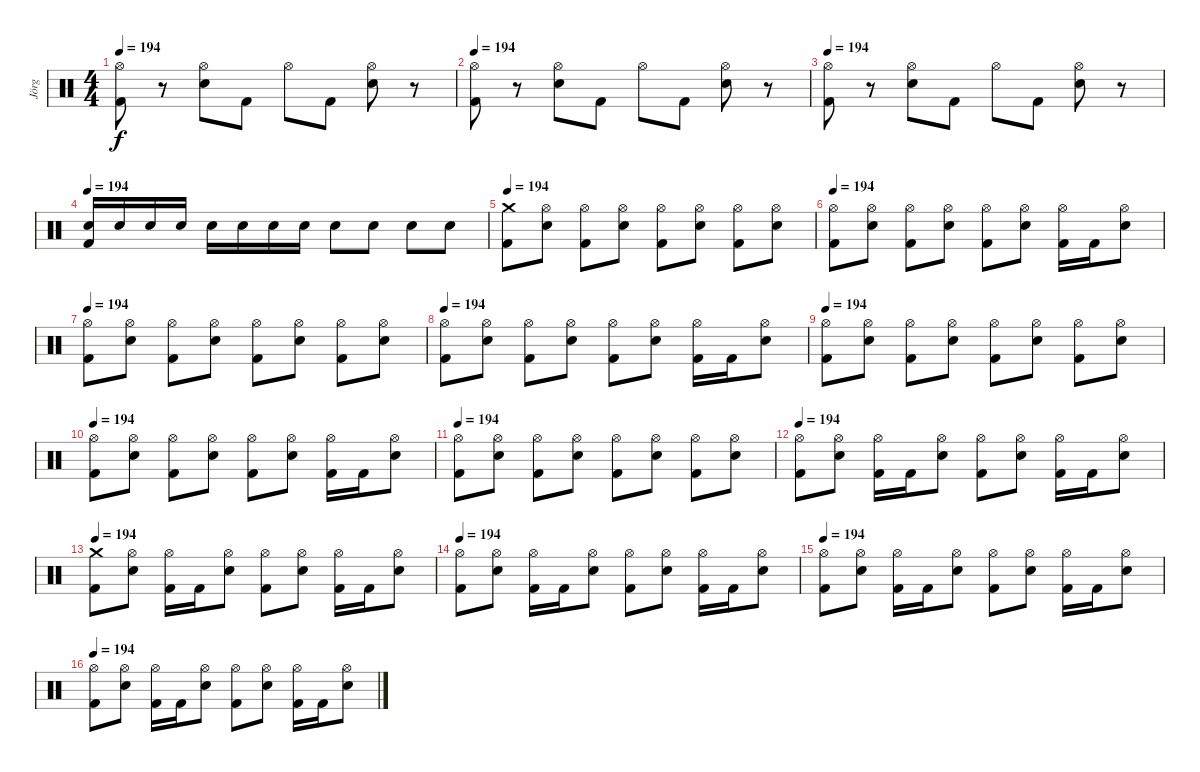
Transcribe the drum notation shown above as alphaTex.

\track ("Jörg" "Jörg") {instrument percussion}
\staff {score}
\articulation defaults
\ts (4 4)
\tempo 194
\clef neutral
\ks c
("Hi-Hat (open)" "Kick (hit) 2").8{dy f} r.8 ("Snare (hit) 2" "Hi-Hat (open)").8 "Kick (hit) 2".8 "Hi-Hat (open)".8 "Kick (hit) 2".8 ("Snare (hit) 2" "Hi-Hat (open)").8 r.8 |
\tempo 194
("Hi-Hat (open)" "Kick (hit) 2").8 r.8 ("Snare (hit) 2" "Hi-Hat (open)").8 "Kick (hit) 2".8 "Hi-Hat (open)".8 "Kick (hit) 2".8 ("Snare (hit) 2" "Hi-Hat (open)").8 r.8 |
\tempo 194
("Hi-Hat (open)" "Kick (hit) 2").8 r.8 ("Snare (hit) 2" "Hi-Hat (open)").8 "Kick (hit) 2".8 "Hi-Hat (open)".8 "Kick (hit) 2".8 ("Snare (hit) 2" "Hi-Hat (open)").8 r.8 |
\tempo 194
("Snare (hit) 2" "Kick (hit) 2").16 "Snare (hit) 2".16 "Snare (hit) 2".16 "Snare (hit) 2".16 "Snare (hit) 2".16 "Snare (hit) 2".16 "Snare (hit) 2".16 "Snare (hit) 2".16 "Snare (hit) 2".8 "Snare (hit) 2".8 "Snare (hit) 2".8 "Snare (hit) 2".8 |
\tempo 194
("Kick (hit) 2" "Crash medium (hit)").8 ("Snare (hit) 2" "Hi-Hat (open)").8 ("Kick (hit) 2" "Hi-Hat (open)").8 ("Snare (hit) 2" "Hi-Hat (open)").8 ("Kick (hit) 2" "Hi-Hat (open)").8 ("Snare (hit) 2" "Hi-Hat (open)").8 ("Kick (hit) 2" "Hi-Hat (open)").8 ("Snare (hit) 2" "Hi-Hat (open)").8 |
\tempo 194
("Kick (hit) 2" "Hi-Hat (open)").8 ("Snare (hit) 2" "Hi-Hat (open)").8 ("Kick (hit) 2" "Hi-Hat (open)").8 ("Snare (hit) 2" "Hi-Hat (open)").8 ("Kick (hit) 2" "Hi-Hat (open)").8 ("Snare (hit) 2" "Hi-Hat (open)").8 ("Kick (hit) 2" "Hi-Hat (open)").16 "Kick (hit) 2".16 ("Snare (hit) 2" "Hi-Hat (open)").8 |
\tempo 194
("Hi-Hat (open)" "Kick (hit) 2").8 ("Snare (hit) 2" "Hi-Hat (open)").8 ("Kick (hit) 2" "Hi-Hat (open)").8 ("Snare (hit) 2" "Hi-Hat (open)").8 ("Kick (hit) 2" "Hi-Hat (open)").8 ("Snare (hit) 2" "Hi-Hat (open)").8 ("Kick (hit) 2" "Hi-Hat (open)").8 ("Snare (hit) 2" "Hi-Hat (open)").8 |
\tempo 194
("Kick (hit) 2" "Hi-Hat (open)").8 ("Snare (hit) 2" "Hi-Hat (open)").8 ("Kick (hit) 2" "Hi-Hat (open)").8 ("Snare (hit) 2" "Hi-Hat (open)").8 ("Kick (hit) 2" "Hi-Hat (open)").8 ("Snare (hit) 2" "Hi-Hat (open)").8 ("Kick (hit) 2" "Hi-Hat (open)").16 "Kick (hit) 2".16 ("Snare (hit) 2" "Hi-Hat (open)").8 |
\tempo 194
("Hi-Hat (open)" "Kick (hit) 2").8 ("Snare (hit) 2" "Hi-Hat (open)").8 ("Kick (hit) 2" "Hi-Hat (open)").8 ("Snare (hit) 2" "Hi-Hat (open)").8 ("Kick (hit) 2" "Hi-Hat (open)").8 ("Snare (hit) 2" "Hi-Hat (open)").8 ("Kick (hit) 2" "Hi-Hat (open)").8 ("Snare (hit) 2" "Hi-Hat (open)").8 |
\tempo 194
("Kick (hit) 2" "Hi-Hat (open)").8 ("Snare (hit) 2" "Hi-Hat (open)").8 ("Kick (hit) 2" "Hi-Hat (open)").8 ("Snare (hit) 2" "Hi-Hat (open)").8 ("Kick (hit) 2" "Hi-Hat (open)").8 ("Snare (hit) 2" "Hi-Hat (open)").8 ("Kick (hit) 2" "Hi-Hat (open)").16 "Kick (hit) 2".16 ("Snare (hit) 2" "Hi-Hat (open)").8 |
\tempo 194
("Hi-Hat (open)" "Kick (hit) 2").8 ("Snare (hit) 2" "Hi-Hat (open)").8 ("Kick (hit) 2" "Hi-Hat (open)").8 ("Snare (hit) 2" "Hi-Hat (open)").8 ("Kick (hit) 2" "Hi-Hat (open)").8 ("Snare (hit) 2" "Hi-Hat (open)").8 ("Kick (hit) 2" "Hi-Hat (open)").8 ("Snare (hit) 2" "Hi-Hat (open)").8 |
\tempo 194
("Kick (hit) 2" "Hi-Hat (open)").8 ("Snare (hit) 2" "Hi-Hat (open)").8 ("Kick (hit) 2" "Hi-Hat (open)").16 "Kick (hit) 2".16 ("Snare (hit) 2" "Hi-Hat (open)").8 ("Kick (hit) 2" "Hi-Hat (open)").8 ("Snare (hit) 2" "Hi-Hat (open)").8 ("Kick (hit) 2" "Hi-Hat (open)").16 "Kick (hit) 2".16 ("Snare (hit) 2" "Hi-Hat (open)").8 |
\tempo 194
("Crash medium (hit)" "Kick (hit) 2").8 ("Snare (hit) 2" "Hi-Hat (open)").8 ("Kick (hit) 2" "Hi-Hat (open)").16 "Kick (hit) 2".16 ("Snare (hit) 2" "Hi-Hat (open)").8 ("Kick (hit) 2" "Hi-Hat (open)").8 ("Snare (hit) 2" "Hi-Hat (open)").8 ("Kick (hit) 2" "Hi-Hat (open)").16 "Kick (hit) 2".16 ("Snare (hit) 2" "Hi-Hat (open)").8 |
\tempo 194
("Kick (hit) 2" "Hi-Hat (open)").8 ("Snare (hit) 2" "Hi-Hat (open)").8 ("Kick (hit) 2" "Hi-Hat (open)").16 "Kick (hit) 2".16 ("Snare (hit) 2" "Hi-Hat (open)").8 ("Kick (hit) 2" "Hi-Hat (open)").8 ("Snare (hit) 2" "Hi-Hat (open)").8 ("Kick (hit) 2" "Hi-Hat (open)").16 "Kick (hit) 2".16 ("Snare (hit) 2" "Hi-Hat (open)").8 |
\tempo 194
("Kick (hit) 2" "Hi-Hat (open)").8 ("Snare (hit) 2" "Hi-Hat (open)").8 ("Kick (hit) 2" "Hi-Hat (open)").16 "Kick (hit) 2".16 ("Snare (hit) 2" "Hi-Hat (open)").8 ("Kick (hit) 2" "Hi-Hat (open)").8 ("Snare (hit) 2" "Hi-Hat (open)").8 ("Kick (hit) 2" "Hi-Hat (open)").16 "Kick (hit) 2".16 ("Snare (hit) 2" "Hi-Hat (open)").8 |
\tempo 194
("Kick (hit) 2" "Hi-Hat (open)").8 ("Snare (hit) 2" "Hi-Hat (open)").8 ("Kick (hit) 2" "Hi-Hat (open)").16 "Kick (hit) 2".16 ("Snare (hit) 2" "Hi-Hat (open)").8 ("Kick (hit) 2" "Hi-Hat (open)").8 ("Snare (hit) 2" "Hi-Hat (open)").8 ("Kick (hit) 2" "Hi-Hat (open)").16 "Kick (hit) 2".16 ("Snare (hit) 2" "Hi-Hat (open)").8
